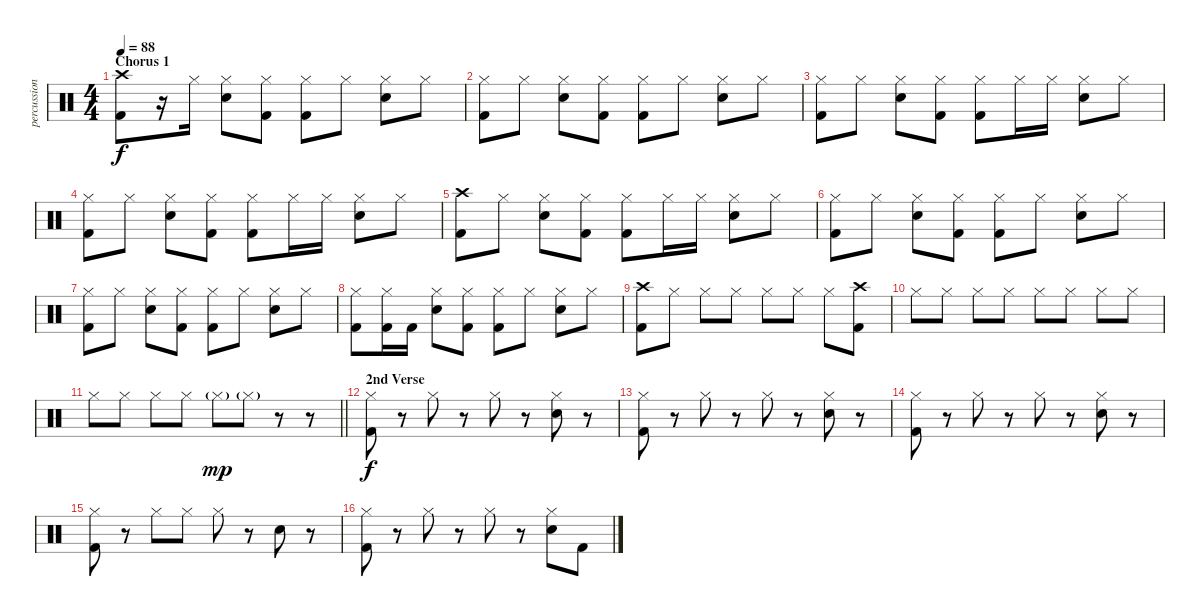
\track ("percussion" "percussion") {instrument percussion}
\staff {score}
\articulation defaults
\ts (4 4)
\section ("" "Chorus 1")
\tempo 88
\clef neutral
\ks c
("Crash high (hit)" "Kick (hit) 2").8{dy f} r.16 "Hi-Hat (closed)".16 ("Snare (hit) 2" "Hi-Hat (closed)").8 ("Hi-Hat (closed)" "Kick (hit) 2").8 ("Hi-Hat (closed)" "Kick (hit) 2").8 "Hi-Hat (closed)".8 ("Snare (hit) 2" "Hi-Hat (closed)").8 "Hi-Hat (closed)".8 |
("Hi-Hat (closed)" "Kick (hit) 2").8 "Hi-Hat (closed)".8 ("Snare (hit) 2" "Hi-Hat (closed)").8 ("Hi-Hat (closed)" "Kick (hit) 2").8 ("Hi-Hat (closed)" "Kick (hit) 2").8 "Hi-Hat (closed)".8 ("Snare (hit) 2" "Hi-Hat (closed)").8 "Hi-Hat (closed)".8 |
("Hi-Hat (closed)" "Kick (hit) 2").8 "Hi-Hat (closed)".8 ("Snare (hit) 2" "Hi-Hat (closed)").8 ("Hi-Hat (closed)" "Kick (hit) 2").8 ("Hi-Hat (closed)" "Kick (hit) 2").8 "Hi-Hat (closed)".16 "Hi-Hat (closed)".16 ("Snare (hit) 2" "Hi-Hat (closed)").8 "Hi-Hat (closed)".8 |
("Hi-Hat (closed)" "Kick (hit) 2").8 "Hi-Hat (closed)".8 ("Snare (hit) 2" "Hi-Hat (closed)").8 ("Hi-Hat (closed)" "Kick (hit) 2").8 ("Hi-Hat (closed)" "Kick (hit) 2").8 "Hi-Hat (closed)".16 "Hi-Hat (closed)".16 ("Snare (hit) 2" "Hi-Hat (closed)").8 "Hi-Hat (closed)".8 |
("Crash high (hit)" "Kick (hit) 2").8 "Hi-Hat (closed)".8 ("Snare (hit) 2" "Hi-Hat (closed)").8 ("Hi-Hat (closed)" "Kick (hit) 2").8 ("Hi-Hat (closed)" "Kick (hit) 2").8 "Hi-Hat (closed)".16 "Hi-Hat (closed)".16 ("Snare (hit) 2" "Hi-Hat (closed)").8 "Hi-Hat (closed)".8 |
("Hi-Hat (closed)" "Kick (hit) 2").8 "Hi-Hat (closed)".8 ("Snare (hit) 2" "Hi-Hat (closed)").8 ("Hi-Hat (closed)" "Kick (hit) 2").8 ("Hi-Hat (closed)" "Kick (hit) 2").8 "Hi-Hat (closed)".8 ("Snare (hit) 2" "Hi-Hat (closed)").8 "Hi-Hat (closed)".8 |
("Hi-Hat (closed)" "Kick (hit) 2").8 "Hi-Hat (closed)".8 ("Snare (hit) 2" "Hi-Hat (closed)").8 ("Hi-Hat (closed)" "Kick (hit) 2").8 ("Hi-Hat (closed)" "Kick (hit) 2").8 "Hi-Hat (closed)".8 ("Snare (hit) 2" "Hi-Hat (closed)").8 "Hi-Hat (closed)".8 |
("Hi-Hat (closed)" "Kick (hit) 2").8 ("Hi-Hat (closed)" "Kick (hit) 2").16 "Kick (hit) 2".16 ("Snare (hit) 2" "Hi-Hat (closed)").8 ("Hi-Hat (closed)" "Kick (hit) 2").8 ("Hi-Hat (closed)" "Kick (hit) 2").8 "Hi-Hat (closed)".8 ("Snare (hit) 2" "Hi-Hat (closed)").8 "Hi-Hat (closed)".8 |
("Crash high (hit)" "Kick (hit) 2").8 "Hi-Hat (closed)".8 "Hi-Hat (closed)".8 "Hi-Hat (closed)".8 "Hi-Hat (closed)".8 "Hi-Hat (closed)".8 "Hi-Hat (closed)".8 ("Crash high (hit)" "Kick (hit) 2").8 |
"Hi-Hat (closed)".8 "Hi-Hat (closed)".8 "Hi-Hat (closed)".8 "Hi-Hat (closed)".8 "Hi-Hat (closed)".8 "Hi-Hat (closed)".8 "Hi-Hat (closed)".8 "Hi-Hat (closed)".8 |
\barLineRight lightlight "Hi-Hat (closed)".8 "Hi-Hat (closed)".8 "Hi-Hat (closed)".8 "Hi-Hat (closed)".8 "Hi-Hat (closed)"{g}.8{dy mp} "Hi-Hat (closed)"{g}.8
r.8 r.8 |
\section ("" "2nd Verse")
("Hi-Hat (closed)" "Kick (hit) 2").8{dy f} r.8 "Hi-Hat (closed)".8 r.8 "Hi-Hat (closed)".8 r.8 ("Snare (hit) 2" "Hi-Hat (closed)").8 r.8 |
("Hi-Hat (closed)" "Kick (hit) 2").8 r.8 "Hi-Hat (closed)".8 r.8 "Hi-Hat (closed)".8 r.8 ("Snare (hit) 2" "Hi-Hat (closed)").8 r.8 |
("Hi-Hat (closed)" "Kick (hit) 2").8 r.8 "Hi-Hat (closed)".8 r.8 "Hi-Hat (closed)".8 r.8 ("Snare (hit) 2" "Hi-Hat (closed)").8 r.8 |
("Hi-Hat (closed)" "Kick (hit) 2").8 r.8 "Hi-Hat (closed)".8 "Hi-Hat (closed)".8 "Hi-Hat (closed)".8 r.8 "Snare (hit) 2".8 r.8 |
("Hi-Hat (closed)" "Kick (hit) 2").8 r.8 "Hi-Hat (closed)".8 r.8 "Hi-Hat (closed)".8 r.8 ("Snare (hit) 2" "Hi-Hat (closed)").8 "Kick (hit) 2".8
